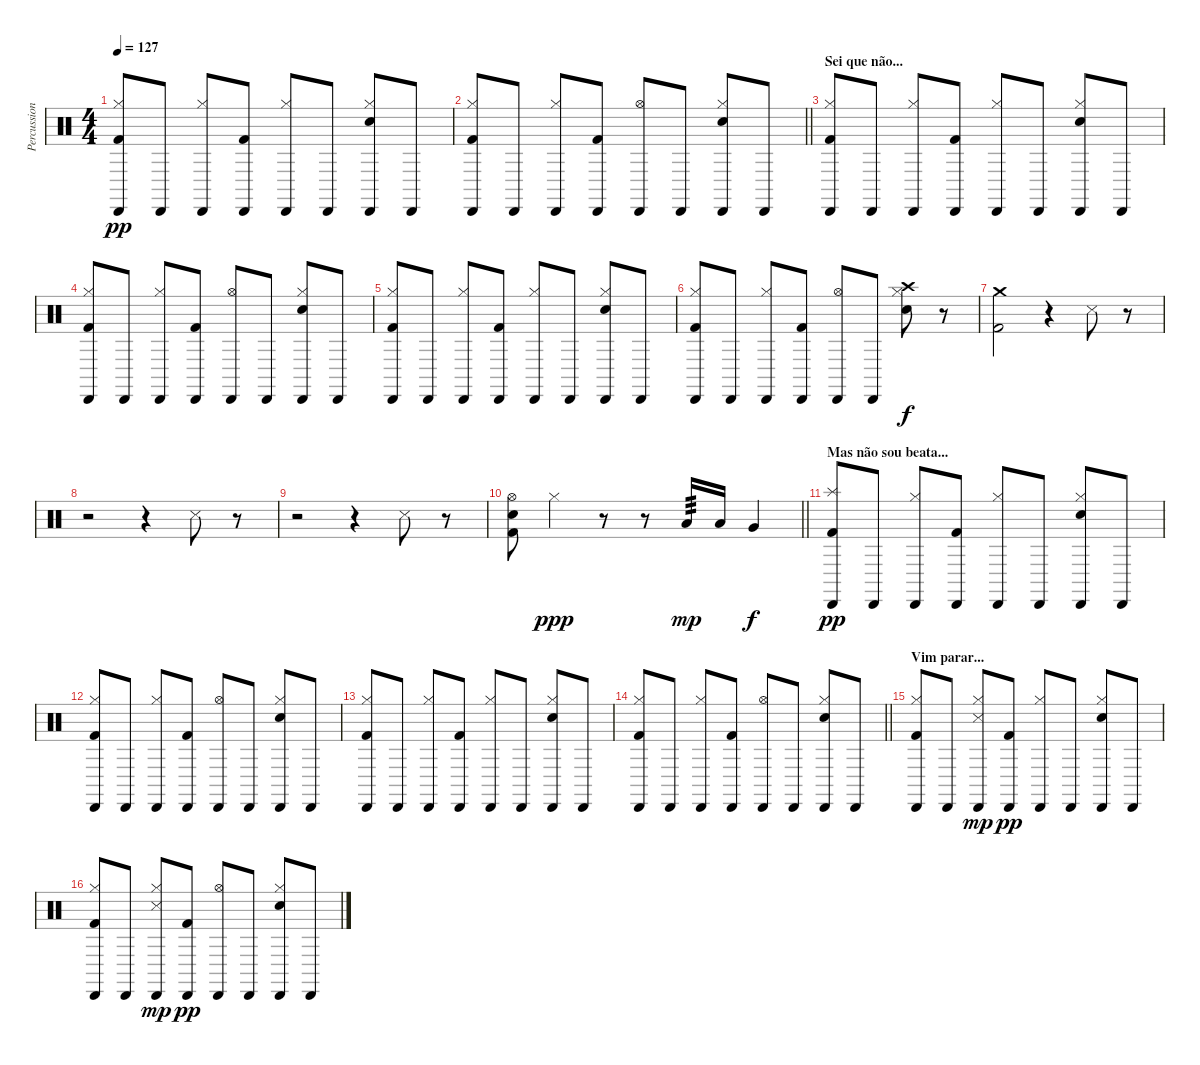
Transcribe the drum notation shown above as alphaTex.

\track ("Percussion" "Percussion") {instrument percussion}
\staff {score}
\articulation defaults
\ts (4 4)
\tempo 127
\clef neutral
\ks c
("Cabasa (hit)" "Hi-Hat (closed)" "Kick (hit) 2").8{dy pp} "Cabasa (hit)".8 ("Cabasa (hit)" "Hi-Hat (closed)").8 ("Cabasa (hit)" "Kick (hit) 2").8 ("Cabasa (hit)" "Hi-Hat (closed)").8 "Cabasa (hit)".8 ("Cabasa (hit)" "Hi-Hat (closed)" "Electric Snare (hit)").8 "Cabasa (hit)".8 |
\barLineRight lightlight
("Cabasa (hit)" "Hi-Hat (closed)" "Kick (hit) 2").8 "Cabasa (hit)".8 ("Cabasa (hit)" "Hi-Hat (closed)").8 ("Cabasa (hit)" "Kick (hit) 2").8 ("Cabasa (hit)" "Hi-Hat (open)").8 "Cabasa (hit)".8 ("Cabasa (hit)" "Hi-Hat (closed)" "Electric Snare (hit)").8 "Cabasa (hit)".8 |
\section ("" "Sei que não...")
("Cabasa (hit)" "Hi-Hat (closed)" "Kick (hit) 2").8 "Cabasa (hit)".8 ("Cabasa (hit)" "Hi-Hat (closed)").8 ("Cabasa (hit)" "Kick (hit) 2").8 ("Cabasa (hit)" "Hi-Hat (closed)").8 "Cabasa (hit)".8 ("Cabasa (hit)" "Hi-Hat (closed)" "Electric Snare (hit)").8 "Cabasa (hit)".8 |
("Cabasa (hit)" "Hi-Hat (closed)" "Kick (hit) 2").8 "Cabasa (hit)".8 ("Cabasa (hit)" "Hi-Hat (closed)").8 ("Cabasa (hit)" "Kick (hit) 2").8 ("Cabasa (hit)" "Hi-Hat (open)").8 "Cabasa (hit)".8 ("Cabasa (hit)" "Hi-Hat (closed)" "Electric Snare (hit)").8 "Cabasa (hit)".8 |
("Cabasa (hit)" "Hi-Hat (closed)" "Kick (hit) 2").8 "Cabasa (hit)".8 ("Cabasa (hit)" "Hi-Hat (closed)").8 ("Cabasa (hit)" "Kick (hit) 2").8 ("Cabasa (hit)" "Hi-Hat (closed)").8 "Cabasa (hit)".8 ("Cabasa (hit)" "Hi-Hat (closed)" "Electric Snare (hit)").8 "Cabasa (hit)".8 |
("Cabasa (hit)" "Hi-Hat (closed)" "Kick (hit) 2").8 "Cabasa (hit)".8 ("Cabasa (hit)" "Hi-Hat (closed)").8 ("Cabasa (hit)" "Kick (hit) 2").8 ("Cabasa (hit)" "Hi-Hat (open)").8 "Cabasa (hit)".8 ("Crash high (hit)" "Hi-Hat (closed)" "Electric Snare (hit)").8{dy f} r.8 |
("Crash medium (hit)" "Kick (hit) 2").2 r.4 "Snare (side stick) 3".8 r.8 |
r.2 r.4 "Snare (side stick) 3".8 r.8 |
r.2 r.4 "Snare (side stick) 3".8 r.8 |
\barLineRight lightlight
("Hi-Hat (open)" "Electric Snare (hit)" "Kick (hit) 2").8 "Hi-Hat (closed)".4{dy ppp} r.8 r.8 "Low Tom (hit)".16{tp 3 dy mp} "Low Tom (hit)".16 "Very Low Tom (hit)".4{dy f} |
\section ("" "Mas não sou beata...")
("Cabasa (hit)" "Splash (hit)" "Kick (hit) 2").8{dy pp} "Cabasa (hit)".8 ("Cabasa (hit)" "Hi-Hat (closed)").8 ("Cabasa (hit)" "Kick (hit) 2").8 ("Cabasa (hit)" "Hi-Hat (closed)").8 "Cabasa (hit)".8 ("Cabasa (hit)" "Hi-Hat (closed)" "Electric Snare (hit)").8 "Cabasa (hit)".8 |
("Cabasa (hit)" "Hi-Hat (closed)" "Kick (hit) 2").8 "Cabasa (hit)".8 ("Cabasa (hit)" "Hi-Hat (closed)").8 ("Cabasa (hit)" "Kick (hit) 2").8 ("Cabasa (hit)" "Hi-Hat (open)").8 "Cabasa (hit)".8 ("Cabasa (hit)" "Hi-Hat (closed)" "Electric Snare (hit)").8 "Cabasa (hit)".8 |
("Cabasa (hit)" "Hi-Hat (closed)" "Kick (hit) 2").8 "Cabasa (hit)".8 ("Cabasa (hit)" "Hi-Hat (closed)").8 ("Cabasa (hit)" "Kick (hit) 2").8 ("Cabasa (hit)" "Hi-Hat (closed)").8 "Cabasa (hit)".8 ("Cabasa (hit)" "Hi-Hat (closed)" "Electric Snare (hit)").8 "Cabasa (hit)".8 |
\barLineRight lightlight
("Cabasa (hit)" "Hi-Hat (closed)" "Kick (hit) 2").8 "Cabasa (hit)".8 ("Cabasa (hit)" "Hi-Hat (closed)").8 ("Cabasa (hit)" "Kick (hit) 2").8 ("Cabasa (hit)" "Hi-Hat (open)").8 "Cabasa (hit)".8 ("Cabasa (hit)" "Hi-Hat (closed)" "Electric Snare (hit)").8 "Cabasa (hit)".8 |
\section ("" "Vim parar...")
("Cabasa (hit)" "Hi-Hat (closed)" "Kick (hit) 2").8 "Cabasa (hit)".8 ("Cabasa (hit)" "Hi-Hat (closed)" "Snare (side stick) 3").8{dy mp} ("Cabasa (hit)" "Kick (hit) 2").8{dy pp} ("Cabasa (hit)" "Hi-Hat (closed)").8 "Cabasa (hit)".8 ("Cabasa (hit)" "Hi-Hat (closed)" "Electric Snare (hit)").8 "Cabasa (hit)".8 |
("Cabasa (hit)" "Hi-Hat (closed)" "Kick (hit) 2").8 "Cabasa (hit)".8 ("Cabasa (hit)" "Hi-Hat (closed)" "Snare (side stick) 3").8{dy mp} ("Cabasa (hit)" "Kick (hit) 2").8{dy pp} ("Cabasa (hit)" "Hi-Hat (open)").8 "Cabasa (hit)".8 ("Cabasa (hit)" "Hi-Hat (closed)" "Electric Snare (hit)").8 "Cabasa (hit)".8
